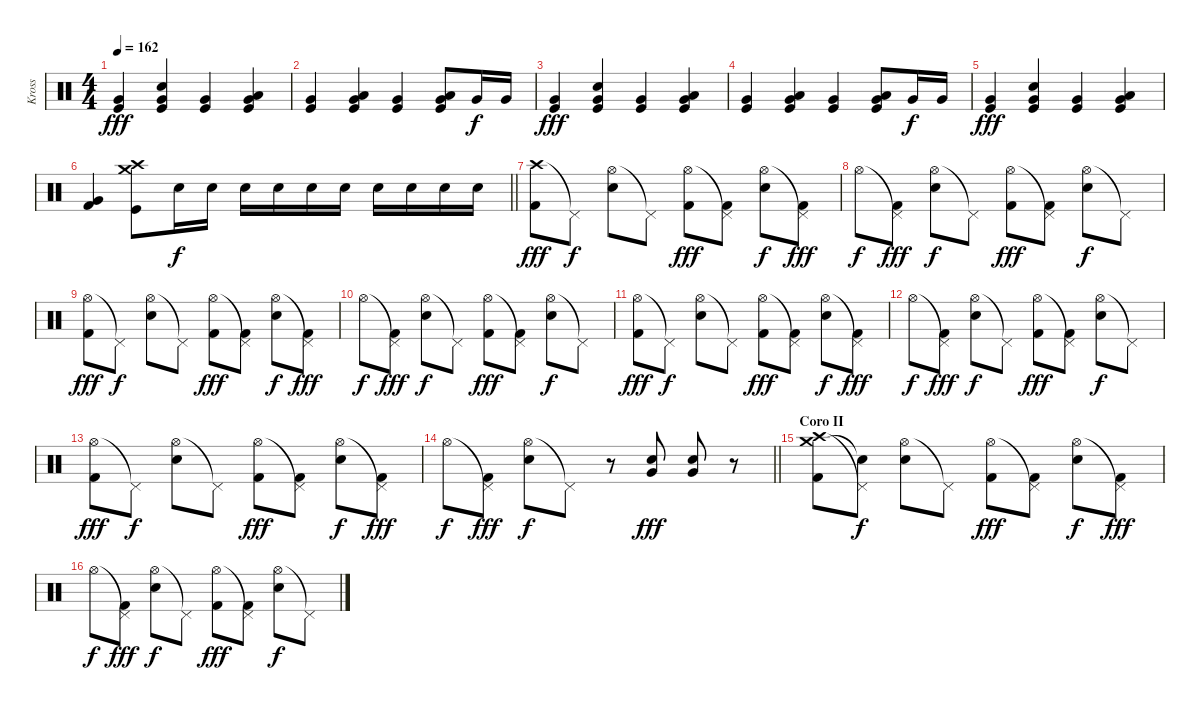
\track ("Kross" "Kross") {instrument percussion}
\staff {score}
\articulation defaults
\ts (4 4)
\tempo 162
\clef neutral
\ks c
("Very Low Tom (hit)" "Kick (hit)").4{dy fff} ("Snare (hit) 2" "Very Low Tom (hit)" "Kick (hit)").4 ("Very Low Tom (hit)" "Kick (hit)").4 ("Low Tom (hit)" "Very Low Tom (hit)" "Kick (hit)").4 |
("Very Low Tom (hit)" "Kick (hit)").4 ("Low Tom (hit)" "Very Low Tom (hit)" "Kick (hit)").4 ("Very Low Tom (hit)" "Kick (hit)").4 ("Low Tom (hit)" "Very Low Tom (hit)" "Kick (hit)").8 "Very Low Tom (hit)".16{dy f} "Very Low Tom (hit)".16 |
("Very Low Tom (hit)" "Kick (hit)").4{dy fff} ("Snare (hit) 2" "Very Low Tom (hit)" "Kick (hit)").4 ("Very Low Tom (hit)" "Kick (hit)").4 ("Low Tom (hit)" "Very Low Tom (hit)" "Kick (hit)").4 |
("Very Low Tom (hit)" "Kick (hit)").4 ("Low Tom (hit)" "Very Low Tom (hit)" "Kick (hit)").4 ("Very Low Tom (hit)" "Kick (hit)").4 ("Low Tom (hit)" "Very Low Tom (hit)" "Kick (hit)").8 "Very Low Tom (hit)".16{dy f} "Very Low Tom (hit)".16 |
("Very Low Tom (hit)" "Kick (hit)").4{dy fff} ("Snare (hit) 2" "Very Low Tom (hit)" "Kick (hit)").4 ("Very Low Tom (hit)" "Kick (hit)").4 ("Low Tom (hit)" "Very Low Tom (hit)" "Kick (hit)").4 |
\barLineRight lightlight
("Very Low Tom (hit)" "Kick (hit) 2").4 ("Crash medium (hit)" "Crash high (hit)" "Kick (hit)").8 "Snare (hit) 2".16{dy f} "Snare (hit) 2".16 "Snare (hit) 2".16 "Snare (hit) 2".16 "Snare (hit) 2".16 "Snare (hit) 2".16 "Snare (hit) 2".16 "Snare (hit) 2".16 "Snare (hit) 2".16 "Snare (hit) 2".16 |
("Crash high (hit)" "Kick (hit) 2").8{dy fff} "Pedal Hi-Hat (hit)"{t}.8{dy f} ("Hi-Hat (open)" "Electric Snare (hit)").8 "Pedal Hi-Hat (hit)"{t}.8 ("Hi-Hat (open)" "Kick (hit) 2").8{dy fff} ("Pedal Hi-Hat (hit)"{t} "Kick (hit) 2").8 ("Hi-Hat (open)" "Electric Snare (hit)").8{dy f} ("Pedal Hi-Hat (hit)"{t} "Kick (hit) 2").8{dy fff} |
"Hi-Hat (open)".8{dy f} ("Pedal Hi-Hat (hit)"{t} "Kick (hit) 2").8{dy fff} ("Hi-Hat (open)" "Electric Snare (hit)").8{dy f} "Pedal Hi-Hat (hit)"{t}.8 ("Hi-Hat (open)" "Kick (hit) 2").8{dy fff} ("Pedal Hi-Hat (hit)"{t} "Kick (hit) 2").8 ("Hi-Hat (open)" "Electric Snare (hit)").8{dy f} "Pedal Hi-Hat (hit)"{t}.8 |
("Hi-Hat (open)" "Kick (hit) 2").8{dy fff} "Pedal Hi-Hat (hit)"{t}.8{dy f} ("Hi-Hat (open)" "Electric Snare (hit)").8 "Pedal Hi-Hat (hit)"{t}.8 ("Hi-Hat (open)" "Kick (hit) 2").8{dy fff} ("Pedal Hi-Hat (hit)"{t} "Kick (hit) 2").8 ("Hi-Hat (open)" "Electric Snare (hit)").8{dy f} ("Pedal Hi-Hat (hit)"{t} "Kick (hit) 2").8{dy fff} |
"Hi-Hat (open)".8{dy f} ("Pedal Hi-Hat (hit)"{t} "Kick (hit) 2").8{dy fff} ("Hi-Hat (open)" "Electric Snare (hit)").8{dy f} "Pedal Hi-Hat (hit)"{t}.8 ("Hi-Hat (open)" "Kick (hit) 2").8{dy fff} ("Pedal Hi-Hat (hit)"{t} "Kick (hit) 2").8 ("Hi-Hat (open)" "Electric Snare (hit)").8{dy f} "Pedal Hi-Hat (hit)"{t}.8 |
("Hi-Hat (open)" "Kick (hit) 2").8{dy fff} "Pedal Hi-Hat (hit)"{t}.8{dy f} ("Hi-Hat (open)" "Electric Snare (hit)").8 "Pedal Hi-Hat (hit)"{t}.8 ("Hi-Hat (open)" "Kick (hit) 2").8{dy fff} ("Pedal Hi-Hat (hit)"{t} "Kick (hit) 2").8 ("Hi-Hat (open)" "Electric Snare (hit)").8{dy f} ("Pedal Hi-Hat (hit)"{t} "Kick (hit) 2").8{dy fff} |
"Hi-Hat (open)".8{dy f} ("Pedal Hi-Hat (hit)"{t} "Kick (hit) 2").8{dy fff} ("Hi-Hat (open)" "Electric Snare (hit)").8{dy f} "Pedal Hi-Hat (hit)"{t}.8 ("Hi-Hat (open)" "Kick (hit) 2").8{dy fff} ("Pedal Hi-Hat (hit)"{t} "Kick (hit) 2").8 ("Hi-Hat (open)" "Electric Snare (hit)").8{dy f} "Pedal Hi-Hat (hit)"{t}.8 |
("Hi-Hat (open)" "Kick (hit) 2").8{dy fff} "Pedal Hi-Hat (hit)"{t}.8{dy f} ("Hi-Hat (open)" "Electric Snare (hit)").8 "Pedal Hi-Hat (hit)"{t}.8 ("Hi-Hat (open)" "Kick (hit) 2").8{dy fff} ("Pedal Hi-Hat (hit)"{t} "Kick (hit) 2").8 ("Hi-Hat (open)" "Electric Snare (hit)").8{dy f} ("Pedal Hi-Hat (hit)"{t} "Kick (hit) 2").8{dy fff} |
\barLineRight lightlight "Hi-Hat (open)".8{dy f}
("Pedal Hi-Hat (hit)"{t} "Kick (hit) 2").8{dy fff} ("Hi-Hat (open)" "Electric Snare (hit)").8{dy f} "Pedal Hi-Hat (hit)"{t}.8 r.8 ("Very Low Tom (hit)" "Electric Snare (hit)").8{dy fff} ("Very Low Tom (hit)" "Electric Snare (hit)").8 r.8 |
\section ("" "Coro II")
("Crash high (hit)" "Crash medium (hit)" "Kick (hit) 2").8 ("Pedal Hi-Hat (hit)"{t} "Snare (hit)"{t}).8{dy f} ("Hi-Hat (open)" "Electric Snare (hit)").8 "Pedal Hi-Hat (hit)"{t}.8 ("Hi-Hat (open)" "Kick (hit) 2").8{dy fff} ("Pedal Hi-Hat (hit)"{t} "Kick (hit) 2").8 ("Hi-Hat (open)" "Electric Snare (hit)").8{dy f} ("Pedal Hi-Hat (hit)"{t} "Kick (hit) 2").8{dy fff} |
"Hi-Hat (open)".8{dy f} ("Pedal Hi-Hat (hit)"{t} "Kick (hit) 2").8{dy fff} ("Hi-Hat (open)" "Electric Snare (hit)").8{dy f} "Pedal Hi-Hat (hit)"{t}.8 ("Hi-Hat (open)" "Kick (hit) 2").8{dy fff} ("Pedal Hi-Hat (hit)"{t} "Kick (hit) 2").8 ("Hi-Hat (open)" "Electric Snare (hit)").8{dy f} "Pedal Hi-Hat (hit)"{t}.8
